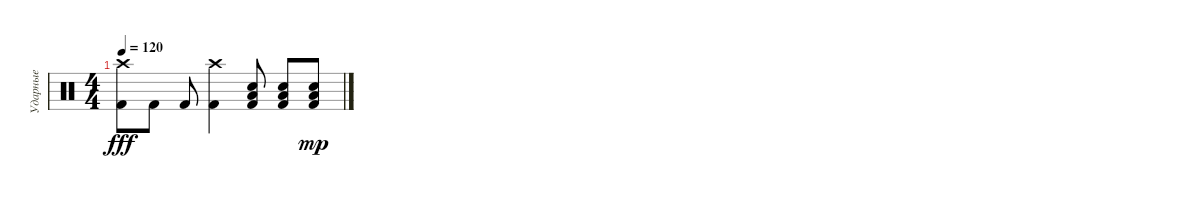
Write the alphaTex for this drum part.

\track ("Ударные" "Ударные") {instrument percussion}
\staff {score}
\articulation defaults
\ts (4 4)
\tempo 120
\clef neutral
\ks c
("Crash high (hit)" "Kick (hit) 2").8{dy fff} "Kick (hit) 2".8 "Kick (hit) 2".8 ("Crash high (hit)" "Kick (hit) 2").4 ("Snare (hit) 2" "Low Floor Tom (hit)" "Kick (hit) 2").8 ("Snare (hit) 2" "Low Floor Tom (hit)" "Kick (hit) 2").8 ("Snare (hit) 2" "Low Floor Tom (hit)" "Kick (hit) 2").8{dy mp}
